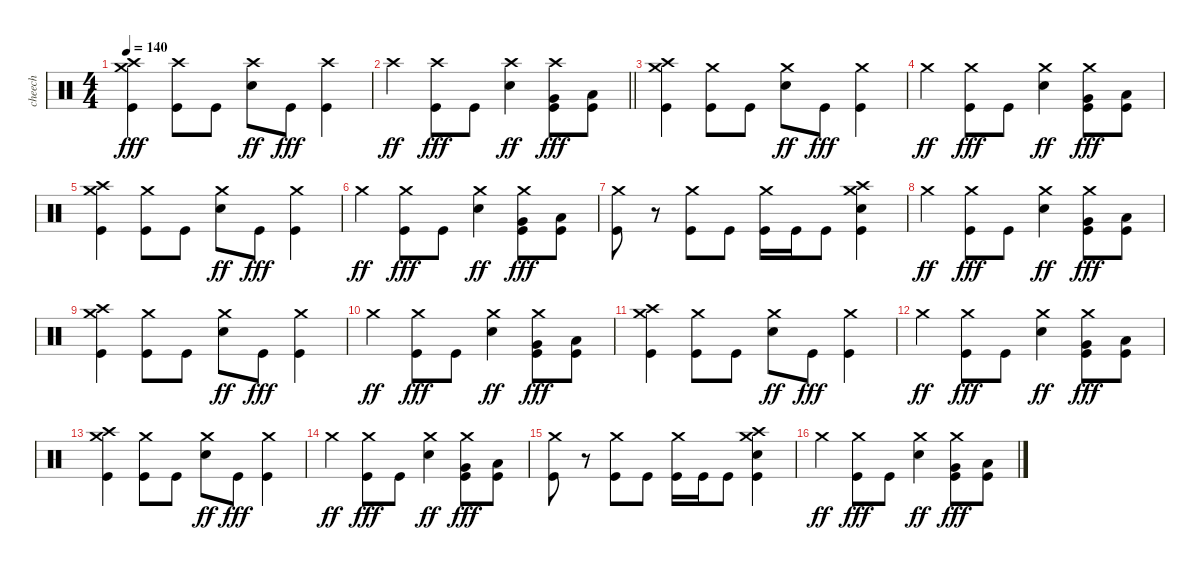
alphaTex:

\track ("cheech" "cheech") {solo instrument percussion}
\staff {score}
\articulation defaults
\ts (4 4)
\tempo 140
\clef neutral
\ks c
("Crash high (hit)" "Crash medium (hit)" "Kick (hit)").4{dy fff} ("Crash high (hit)" "Kick (hit)").8 "Kick (hit)".8 ("Crash high (hit)" "Electric Snare (hit)").8{dy ff} "Kick (hit)".8{dy fff} ("Crash high (hit)" "Kick (hit)").4 |
\barLineRight lightlight "Crash high (hit)".4{dy ff}
("Crash high (hit)" "Kick (hit)").8{dy fff} "Kick (hit)".8 ("Crash high (hit)" "Electric Snare (hit)").4{dy ff} ("Crash high (hit)" "Very Low Tom (hit)" "Kick (hit)").8{dy fff} ("Low Floor Tom (hit)" "Kick (hit)").8 |
("Crash medium (hit)" "Crash high (hit)" "Kick (hit)").4 ("Crash medium (hit)" "Kick (hit)").8 "Kick (hit)".8 ("Crash medium (hit)" "Electric Snare (hit)").8{dy ff} "Kick (hit)".8{dy fff} ("Crash medium (hit)" "Kick (hit)").4 |
"Crash medium (hit)".4{dy ff} ("Crash medium (hit)" "Kick (hit)").8{dy fff} "Kick (hit)".8 ("Crash medium (hit)" "Electric Snare (hit)").4{dy ff} ("Crash medium (hit)" "Very Low Tom (hit)" "Kick (hit)").8{dy fff} ("Low Floor Tom (hit)" "Kick (hit)").8 |
("Crash medium (hit)" "Crash high (hit)" "Kick (hit)").4 ("Crash medium (hit)" "Kick (hit)").8 "Kick (hit)".8 ("Crash medium (hit)" "Electric Snare (hit)").8{dy ff} "Kick (hit)".8{dy fff} ("Crash medium (hit)" "Kick (hit)").4 |
"Crash medium (hit)".4{dy ff} ("Crash medium (hit)" "Kick (hit)").8{dy fff} "Kick (hit)".8 ("Crash medium (hit)" "Electric Snare (hit)").4{dy ff} ("Crash medium (hit)" "Very Low Tom (hit)" "Kick (hit)").8{dy fff} ("Low Floor Tom (hit)" "Kick (hit)").8 |
("Crash medium (hit)" "Kick (hit)").8 r.8 ("Crash medium (hit)" "Kick (hit)").8 "Kick (hit)".8 ("Crash medium (hit)" "Kick (hit)").16 "Kick (hit)".16 "Kick (hit)".8 ("Crash medium (hit)" "Crash high (hit)" "Electric Snare (hit)" "Kick (hit)").4 |
"Crash medium (hit)".4{dy ff} ("Crash medium (hit)" "Kick (hit)").8{dy fff} "Kick (hit)".8 ("Crash medium (hit)" "Electric Snare (hit)").4{dy ff} ("Crash medium (hit)" "Very Low Tom (hit)" "Kick (hit)").8{dy fff} ("Low Floor Tom (hit)" "Kick (hit)").8 |
("Crash medium (hit)" "Crash high (hit)" "Kick (hit)").4 ("Crash medium (hit)" "Kick (hit)").8 "Kick (hit)".8 ("Crash medium (hit)" "Electric Snare (hit)").8{dy ff} "Kick (hit)".8{dy fff} ("Crash medium (hit)" "Kick (hit)").4 |
"Crash medium (hit)".4{dy ff} ("Crash medium (hit)" "Kick (hit)").8{dy fff} "Kick (hit)".8 ("Crash medium (hit)" "Electric Snare (hit)").4{dy ff} ("Crash medium (hit)" "Very Low Tom (hit)" "Kick (hit)").8{dy fff} ("Low Floor Tom (hit)" "Kick (hit)").8 |
("Crash medium (hit)" "Crash high (hit)" "Kick (hit)").4 ("Crash medium (hit)" "Kick (hit)").8 "Kick (hit)".8 ("Crash medium (hit)" "Electric Snare (hit)").8{dy ff} "Kick (hit)".8{dy fff} ("Crash medium (hit)" "Kick (hit)").4 |
"Crash medium (hit)".4{dy ff} ("Crash medium (hit)" "Kick (hit)").8{dy fff} "Kick (hit)".8 ("Crash medium (hit)" "Electric Snare (hit)").4{dy ff} ("Crash medium (hit)" "Very Low Tom (hit)" "Kick (hit)").8{dy fff} ("Low Floor Tom (hit)" "Kick (hit)").8 |
("Crash medium (hit)" "Crash high (hit)" "Kick (hit)").4 ("Crash medium (hit)" "Kick (hit)").8 "Kick (hit)".8 ("Crash medium (hit)" "Electric Snare (hit)").8{dy ff} "Kick (hit)".8{dy fff} ("Crash medium (hit)" "Kick (hit)").4 |
"Crash medium (hit)".4{dy ff} ("Crash medium (hit)" "Kick (hit)").8{dy fff} "Kick (hit)".8 ("Crash medium (hit)" "Electric Snare (hit)").4{dy ff} ("Crash medium (hit)" "Very Low Tom (hit)" "Kick (hit)").8{dy fff} ("Low Floor Tom (hit)" "Kick (hit)").8 |
("Crash medium (hit)" "Kick (hit)").8 r.8 ("Crash medium (hit)" "Kick (hit)").8 "Kick (hit)".8 ("Crash medium (hit)" "Kick (hit)").16 "Kick (hit)".16 "Kick (hit)".8 ("Crash medium (hit)" "Crash high (hit)" "Electric Snare (hit)" "Kick (hit)").4 |
"Crash medium (hit)".4{dy ff} ("Crash medium (hit)" "Kick (hit)").8{dy fff} "Kick (hit)".8 ("Crash medium (hit)" "Electric Snare (hit)").4{dy ff} ("Crash medium (hit)" "Very Low Tom (hit)" "Kick (hit)").8{dy fff} ("Low Floor Tom (hit)" "Kick (hit)").8
